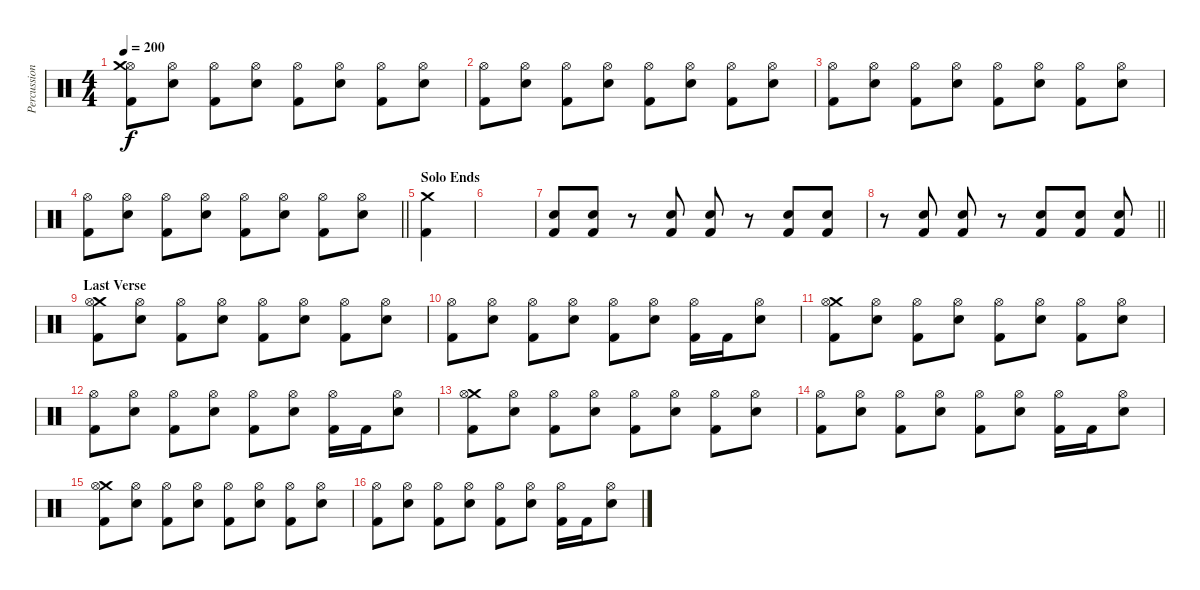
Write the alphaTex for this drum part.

\track ("Percussion" "Percussion") {instrument percussion}
\staff {score}
\articulation defaults
\ts (4 4)
\tempo 200
\clef neutral
\ks c
("Kick (hit) 2" "Hi-Hat (open)" "Crash medium (hit)").8{dy f} ("Electric Snare (hit)" "Hi-Hat (open)").8 ("Kick (hit) 2" "Hi-Hat (open)").8 ("Electric Snare (hit)" "Hi-Hat (open)").8 ("Kick (hit) 2" "Hi-Hat (open)").8 ("Electric Snare (hit)" "Hi-Hat (open)").8 ("Kick (hit) 2" "Hi-Hat (open)").8 ("Electric Snare (hit)" "Hi-Hat (open)").8 |
("Kick (hit) 2" "Hi-Hat (open)").8 ("Electric Snare (hit)" "Hi-Hat (open)").8 ("Kick (hit) 2" "Hi-Hat (open)").8 ("Electric Snare (hit)" "Hi-Hat (open)").8 ("Kick (hit) 2" "Hi-Hat (open)").8 ("Electric Snare (hit)" "Hi-Hat (open)").8 ("Kick (hit) 2" "Hi-Hat (open)").8 ("Electric Snare (hit)" "Hi-Hat (open)").8 |
("Kick (hit) 2" "Hi-Hat (open)").8 ("Electric Snare (hit)" "Hi-Hat (open)").8 ("Kick (hit) 2" "Hi-Hat (open)").8 ("Electric Snare (hit)" "Hi-Hat (open)").8 ("Kick (hit) 2" "Hi-Hat (open)").8 ("Electric Snare (hit)" "Hi-Hat (open)").8 ("Kick (hit) 2" "Hi-Hat (open)").8 ("Electric Snare (hit)" "Hi-Hat (open)").8 |
\barLineRight lightlight
("Kick (hit) 2" "Hi-Hat (open)").8 ("Electric Snare (hit)" "Hi-Hat (open)").8 ("Kick (hit) 2" "Hi-Hat (open)").8 ("Electric Snare (hit)" "Hi-Hat (open)").8 ("Kick (hit) 2" "Hi-Hat (open)").8 ("Electric Snare (hit)" "Hi-Hat (open)").8 ("Kick (hit) 2" "Hi-Hat (open)").8 ("Electric Snare (hit)" "Hi-Hat (open)").8 |
\section ("" "Solo Ends")
("Kick (hit) 2" "Crash medium (hit)").4 |
|
("Electric Snare (hit)" "Kick (hit) 2").8 ("Electric Snare (hit)" "Kick (hit) 2").8 r.8 ("Electric Snare (hit)" "Kick (hit) 2").8 ("Electric Snare (hit)" "Kick (hit) 2").8 r.8 ("Electric Snare (hit)" "Kick (hit) 2").8 ("Electric Snare (hit)" "Kick (hit) 2").8 |
\barLineRight lightlight
r.8 ("Electric Snare (hit)" "Kick (hit) 2").8 ("Electric Snare (hit)" "Kick (hit) 2").8 r.8 ("Electric Snare (hit)" "Kick (hit) 2").8 ("Electric Snare (hit)" "Kick (hit) 2").8 ("Electric Snare (hit)" "Kick (hit) 2").8 |
\section ("" "Last Verse")
("Kick (hit) 2" "Crash medium (hit)" "Hi-Hat (open)").8 ("Electric Snare (hit)" "Hi-Hat (open)").8 ("Kick (hit) 2" "Hi-Hat (open)").8 ("Electric Snare (hit)" "Hi-Hat (open)").8 ("Kick (hit) 2" "Hi-Hat (open)").8 ("Electric Snare (hit)" "Hi-Hat (open)").8 ("Kick (hit) 2" "Hi-Hat (open)").8 ("Electric Snare (hit)" "Hi-Hat (open)").8 |
("Kick (hit) 2" "Hi-Hat (open)").8 ("Electric Snare (hit)" "Hi-Hat (open)").8 ("Kick (hit) 2" "Hi-Hat (open)").8 ("Electric Snare (hit)" "Hi-Hat (open)").8 ("Kick (hit) 2" "Hi-Hat (open)").8 ("Electric Snare (hit)" "Hi-Hat (open)").8 ("Kick (hit) 2" "Hi-Hat (open)").16 "Kick (hit) 2".16 ("Electric Snare (hit)" "Hi-Hat (open)").8 |
("Kick (hit) 2" "Crash medium (hit)" "Hi-Hat (open)").8 ("Electric Snare (hit)" "Hi-Hat (open)").8 ("Kick (hit) 2" "Hi-Hat (open)").8 ("Electric Snare (hit)" "Hi-Hat (open)").8 ("Kick (hit) 2" "Hi-Hat (open)").8 ("Electric Snare (hit)" "Hi-Hat (open)").8 ("Kick (hit) 2" "Hi-Hat (open)").8 ("Electric Snare (hit)" "Hi-Hat (open)").8 |
("Kick (hit) 2" "Hi-Hat (open)").8 ("Electric Snare (hit)" "Hi-Hat (open)").8 ("Kick (hit) 2" "Hi-Hat (open)").8 ("Electric Snare (hit)" "Hi-Hat (open)").8 ("Kick (hit) 2" "Hi-Hat (open)").8 ("Electric Snare (hit)" "Hi-Hat (open)").8 ("Kick (hit) 2" "Hi-Hat (open)").16 "Kick (hit) 2".16 ("Electric Snare (hit)" "Hi-Hat (open)").8 |
("Kick (hit) 2" "Crash medium (hit)" "Hi-Hat (open)").8 ("Electric Snare (hit)" "Hi-Hat (open)").8 ("Kick (hit) 2" "Hi-Hat (open)").8 ("Electric Snare (hit)" "Hi-Hat (open)").8 ("Kick (hit) 2" "Hi-Hat (open)").8 ("Electric Snare (hit)" "Hi-Hat (open)").8 ("Kick (hit) 2" "Hi-Hat (open)").8 ("Electric Snare (hit)" "Hi-Hat (open)").8 |
("Kick (hit) 2" "Hi-Hat (open)").8 ("Electric Snare (hit)" "Hi-Hat (open)").8 ("Kick (hit) 2" "Hi-Hat (open)").8 ("Electric Snare (hit)" "Hi-Hat (open)").8 ("Kick (hit) 2" "Hi-Hat (open)").8 ("Electric Snare (hit)" "Hi-Hat (open)").8 ("Kick (hit) 2" "Hi-Hat (open)").16 "Kick (hit) 2".16 ("Electric Snare (hit)" "Hi-Hat (open)").8 |
("Kick (hit) 2" "Crash medium (hit)" "Hi-Hat (open)").8 ("Electric Snare (hit)" "Hi-Hat (open)").8 ("Kick (hit) 2" "Hi-Hat (open)").8 ("Electric Snare (hit)" "Hi-Hat (open)").8 ("Kick (hit) 2" "Hi-Hat (open)").8 ("Electric Snare (hit)" "Hi-Hat (open)").8 ("Kick (hit) 2" "Hi-Hat (open)").8 ("Electric Snare (hit)" "Hi-Hat (open)").8 |
("Kick (hit) 2" "Hi-Hat (open)").8 ("Electric Snare (hit)" "Hi-Hat (open)").8 ("Kick (hit) 2" "Hi-Hat (open)").8 ("Electric Snare (hit)" "Hi-Hat (open)").8 ("Kick (hit) 2" "Hi-Hat (open)").8 ("Electric Snare (hit)" "Hi-Hat (open)").8 ("Kick (hit) 2" "Hi-Hat (open)").16 "Kick (hit) 2".16 ("Electric Snare (hit)" "Hi-Hat (open)").8
